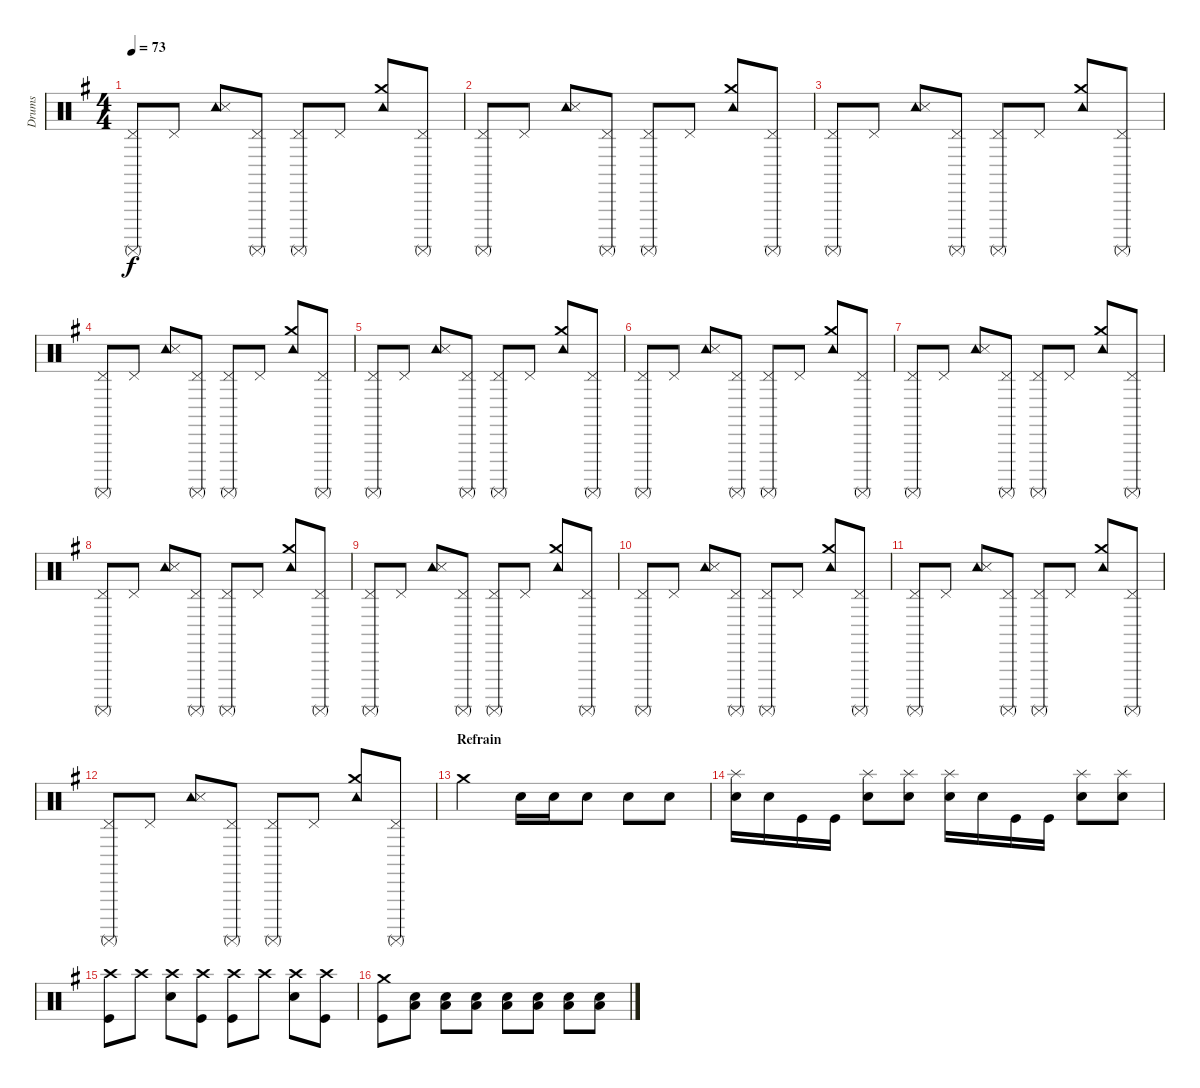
\track ("Drums" "Drums") {instrument percussion}
\staff {score}
\articulation defaults
\ts (4 4)
\tempo 73
\clef neutral
\ks g
("Pedal Hi-Hat (hit)" "Surdo (mute)").8{dy f} "Pedal Hi-Hat (hit)".8 ("Tambourine (hit)" "Snare (side stick) 3").8 ("Pedal Hi-Hat (hit)" "Surdo (mute)").8 ("Pedal Hi-Hat (hit)" "Surdo (mute)").8 "Pedal Hi-Hat (hit)".8 ("Tambourine (hit)" "Crash medium (hit)").8 ("Pedal Hi-Hat (hit)" "Surdo (mute)").8 |
("Pedal Hi-Hat (hit)" "Surdo (mute)").8 "Pedal Hi-Hat (hit)".8 ("Tambourine (hit)" "Snare (side stick) 3").8 ("Pedal Hi-Hat (hit)" "Surdo (mute)").8 ("Pedal Hi-Hat (hit)" "Surdo (mute)").8 "Pedal Hi-Hat (hit)".8 ("Tambourine (hit)" "Crash medium (hit)").8 ("Pedal Hi-Hat (hit)" "Surdo (mute)").8 |
("Pedal Hi-Hat (hit)" "Surdo (mute)").8 "Pedal Hi-Hat (hit)".8 ("Tambourine (hit)" "Snare (side stick) 3").8 ("Pedal Hi-Hat (hit)" "Surdo (mute)").8 ("Pedal Hi-Hat (hit)" "Surdo (mute)").8 "Pedal Hi-Hat (hit)".8 ("Tambourine (hit)" "Crash medium (hit)").8 ("Pedal Hi-Hat (hit)" "Surdo (mute)").8 |
("Pedal Hi-Hat (hit)" "Surdo (mute)").8 "Pedal Hi-Hat (hit)".8 ("Tambourine (hit)" "Snare (side stick) 3").8 ("Pedal Hi-Hat (hit)" "Surdo (mute)").8 ("Pedal Hi-Hat (hit)" "Surdo (mute)").8 "Pedal Hi-Hat (hit)".8 ("Tambourine (hit)" "Crash medium (hit)").8 ("Pedal Hi-Hat (hit)" "Surdo (mute)").8 |
("Pedal Hi-Hat (hit)" "Surdo (mute)").8 "Pedal Hi-Hat (hit)".8 ("Tambourine (hit)" "Snare (side stick) 3").8 ("Pedal Hi-Hat (hit)" "Surdo (mute)").8 ("Pedal Hi-Hat (hit)" "Surdo (mute)").8 "Pedal Hi-Hat (hit)".8 ("Tambourine (hit)" "Crash medium (hit)").8 ("Pedal Hi-Hat (hit)" "Surdo (mute)").8 |
("Pedal Hi-Hat (hit)" "Surdo (mute)").8 "Pedal Hi-Hat (hit)".8 ("Tambourine (hit)" "Snare (side stick) 3").8 ("Pedal Hi-Hat (hit)" "Surdo (mute)").8 ("Pedal Hi-Hat (hit)" "Surdo (mute)").8 "Pedal Hi-Hat (hit)".8 ("Tambourine (hit)" "Crash medium (hit)").8 ("Pedal Hi-Hat (hit)" "Surdo (mute)").8 |
("Pedal Hi-Hat (hit)" "Surdo (mute)").8 "Pedal Hi-Hat (hit)".8 ("Tambourine (hit)" "Snare (side stick) 3").8 ("Pedal Hi-Hat (hit)" "Surdo (mute)").8 ("Pedal Hi-Hat (hit)" "Surdo (mute)").8 "Pedal Hi-Hat (hit)".8 ("Tambourine (hit)" "Crash medium (hit)").8 ("Pedal Hi-Hat (hit)" "Surdo (mute)").8 |
("Pedal Hi-Hat (hit)" "Surdo (mute)").8 "Pedal Hi-Hat (hit)".8 ("Tambourine (hit)" "Snare (side stick) 3").8 ("Pedal Hi-Hat (hit)" "Surdo (mute)").8 ("Pedal Hi-Hat (hit)" "Surdo (mute)").8 "Pedal Hi-Hat (hit)".8 ("Tambourine (hit)" "Crash medium (hit)").8 ("Pedal Hi-Hat (hit)" "Surdo (mute)").8 |
("Pedal Hi-Hat (hit)" "Surdo (mute)").8 "Pedal Hi-Hat (hit)".8 ("Tambourine (hit)" "Snare (side stick) 3").8 ("Pedal Hi-Hat (hit)" "Surdo (mute)").8 ("Pedal Hi-Hat (hit)" "Surdo (mute)").8 "Pedal Hi-Hat (hit)".8 ("Tambourine (hit)" "Crash medium (hit)").8 ("Pedal Hi-Hat (hit)" "Surdo (mute)").8 |
("Pedal Hi-Hat (hit)" "Surdo (mute)").8 "Pedal Hi-Hat (hit)".8 ("Tambourine (hit)" "Snare (side stick) 3").8 ("Pedal Hi-Hat (hit)" "Surdo (mute)").8 ("Pedal Hi-Hat (hit)" "Surdo (mute)").8 "Pedal Hi-Hat (hit)".8 ("Tambourine (hit)" "Crash medium (hit)").8 ("Pedal Hi-Hat (hit)" "Surdo (mute)").8 |
("Pedal Hi-Hat (hit)" "Surdo (mute)").8 "Pedal Hi-Hat (hit)".8 ("Tambourine (hit)" "Snare (side stick) 3").8 ("Pedal Hi-Hat (hit)" "Surdo (mute)").8 ("Pedal Hi-Hat (hit)" "Surdo (mute)").8 "Pedal Hi-Hat (hit)".8 ("Tambourine (hit)" "Crash medium (hit)").8 ("Pedal Hi-Hat (hit)" "Surdo (mute)").8 |
("Pedal Hi-Hat (hit)" "Surdo (mute)").8 "Pedal Hi-Hat (hit)".8 ("Tambourine (hit)" "Snare (side stick) 3").8 ("Pedal Hi-Hat (hit)" "Surdo (mute)").8 ("Pedal Hi-Hat (hit)" "Surdo (mute)").8 "Pedal Hi-Hat (hit)".8 ("Tambourine (hit)" "Crash medium (hit)").8 ("Pedal Hi-Hat (hit)" "Surdo (mute)").8 |
\section ("" "Refrain")
"Crash medium (hit)".2 "Electric Snare (hit)".16 "Electric Snare (hit)".16 "Electric Snare (hit)".8 "Electric Snare (hit)".8 "Electric Snare (hit)".8 |
("Splash (hit)" "Electric Snare (hit)").16 "Electric Snare (hit)".16 "Kick (hit)".16 "Kick (hit)".16 ("Splash (hit)" "Electric Snare (hit)").8 ("Splash (hit)" "Electric Snare (hit)").8 ("Splash (hit)" "Electric Snare (hit)").16 "Electric Snare (hit)".16 "Kick (hit)".16 "Kick (hit)".16 ("Splash (hit)" "Electric Snare (hit)").8 ("Splash (hit)" "Electric Snare (hit)").8 |
("Crash high (hit)" "Kick (hit)").8 "Crash high (hit)".8 ("Crash high (hit)" "Electric Snare (hit)").8 ("Crash high (hit)" "Kick (hit)").8 ("Crash high (hit)" "Kick (hit)").8 "Crash high (hit)".8 ("Crash high (hit)" "Electric Snare (hit)").8 ("Crash high (hit)" "Kick (hit)").8 |
("Crash medium (hit)" "Kick (hit)").8 ("Low Floor Tom (hit)" "Electric Snare (hit)").8 ("Low Floor Tom (hit)" "Electric Snare (hit)").8 ("Low Floor Tom (hit)" "Electric Snare (hit)").8 ("Low Floor Tom (hit)" "Electric Snare (hit)").8 ("Low Floor Tom (hit)" "Electric Snare (hit)").8 ("Low Floor Tom (hit)" "Electric Snare (hit)").8 ("Low Floor Tom (hit)" "Electric Snare (hit)").8
